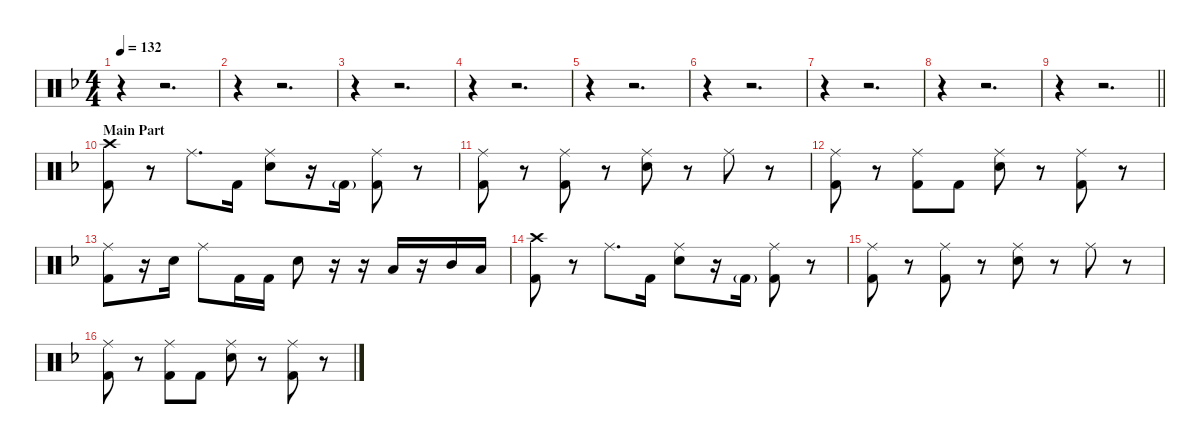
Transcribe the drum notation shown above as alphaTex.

\defaultSystemsLayout 4
\hideDynamics
\bracketExtendMode nobrackets
\singleTrackTrackNamePolicy hidden
\multiTrackTrackNamePolicy hidden
\firstSystemTrackNameMode fullname
\firstSystemTrackNameOrientation horizontal
\otherSystemsTrackNameOrientation horizontal
\track ("Drums" "drm.") {instrument percussion}
\staff {score}
\articulation defaults
\ts (4 4)
\tempo 132
\clef neutral
\ks dminor
r.4{dy f beam Down} r.2{d beam Down} |
r.4{beam Down} r.2{d beam Down} |
r.4{beam Down} r.2{d beam Down} |
r.4{beam Down} r.2{d beam Down} |
r.4{beam Down} r.2{d beam Down} |
r.4{beam Down} r.2{d beam Down} |
r.4{beam Down} r.2{d beam Down} |
r.4{beam Down} r.2{d beam Down} |
\barLineRight lightlight
r.4{beam Down} r.2{d beam Down} |
\section ("" "Main Part")
("Crash high (hit)"{acc forcenatural} "Kick (hit) 2"{acc forcenatural}).8{beam Down} r.8{beam Down} "Ride (middle)"{acc forcenatural}.8{d beam Down} "Kick (hit) 2"{acc forcenatural}.16{beam Down} ("Ride (middle)"{acc forcenatural} "Snare (hit) 2"{acc forcenatural}).8{beam Down} r.16{beam Down} "Kick (hit) 2"{g acc forcenatural}.16{dy mf beam Down} ("Ride (middle)"{acc forcenatural} "Kick (hit) 2"{acc forcenatural}).8{dy f beam Down} r.8{beam Down} |
("Ride (middle)"{acc forcenatural} "Kick (hit) 2"{acc forcenatural}).8{beam Down} r.8{beam Down} ("Ride (middle)"{acc forcenatural} "Kick (hit) 2"{acc forcenatural}).8{beam Down} r.8{beam Down} ("Ride (middle)"{acc forcenatural} "Snare (hit) 2"{acc forcenatural}).8{beam Down} r.8{beam Down} "Ride (middle)"{acc forcenatural}.8{beam Down} r.8{beam Down} |
("Ride (middle)"{acc forcenatural} "Kick (hit) 2"{acc forcenatural}).8{beam Down} r.8{beam Down} ("Ride (middle)"{acc forcenatural} "Kick (hit) 2"{acc forcenatural}).8{beam Down} "Kick (hit) 2"{acc forcenatural}.8{beam Down} ("Ride (middle)"{acc forcenatural} "Snare (hit) 2"{acc forcenatural}).8{beam Down} r.8{beam Down} ("Ride (middle)"{acc forcenatural} "Kick (hit) 2"{acc forcenatural}).8{beam Down} r.8{beam Down} |
("Ride (middle)"{acc forcenatural} "Kick (hit) 2"{acc forcenatural}).8{beam Down} r.16{beam Down} "Snare (hit) 2"{acc forcenatural}.16{beam Down} "Ride (middle)"{acc forcenatural}.8{beam Down} "Kick (hit) 2"{acc forcenatural}.16{beam Down} "Kick (hit) 2"{acc forcenatural}.16{beam Down} "Snare (hit) 2"{acc forcenatural}.8{beam Down} r.16{beam Down} r.16{beam Down} "Low Tom (hit)"{acc forcenatural}.16{beam Up} r.16{beam Up} "Mid Tom (hit)"{acc forcenatural}.16{beam Up} "Low Tom (hit)"{acc forcenatural}.16{beam Up} |
("Crash high (hit)"{acc forcenatural} "Kick (hit) 2"{acc forcenatural}).8{beam Down} r.8{beam Down} "Ride (middle)"{acc forcenatural}.8{d beam Down} "Kick (hit) 2"{acc forcenatural}.16{beam Down} ("Ride (middle)"{acc forcenatural} "Snare (hit) 2"{acc forcenatural}).8{beam Down} r.16{beam Down} "Kick (hit) 2"{g acc forcenatural}.16{dy mf beam Down} ("Ride (middle)"{acc forcenatural} "Kick (hit) 2"{acc forcenatural}).8{dy f beam Down} r.8{beam Down} |
("Ride (middle)"{acc forcenatural} "Kick (hit) 2"{acc forcenatural}).8{beam Down} r.8{beam Down} ("Ride (middle)"{acc forcenatural} "Kick (hit) 2"{acc forcenatural}).8{beam Down} r.8{beam Down} ("Ride (middle)"{acc forcenatural} "Snare (hit) 2"{acc forcenatural}).8{beam Down} r.8{beam Down} "Ride (middle)"{acc forcenatural}.8{beam Down} r.8{beam Down} |
("Ride (middle)"{acc forcenatural} "Kick (hit) 2"{acc forcenatural}).8{beam Down} r.8{beam Down} ("Ride (middle)"{acc forcenatural} "Kick (hit) 2"{acc forcenatural}).8{beam Down} "Kick (hit) 2"{acc forcenatural}.8{beam Down} ("Ride (middle)"{acc forcenatural} "Snare (hit) 2"{acc forcenatural}).8{beam Down} r.8{beam Down} ("Ride (middle)"{acc forcenatural} "Kick (hit) 2"{acc forcenatural}).8{beam Down} r.8{beam Down}
